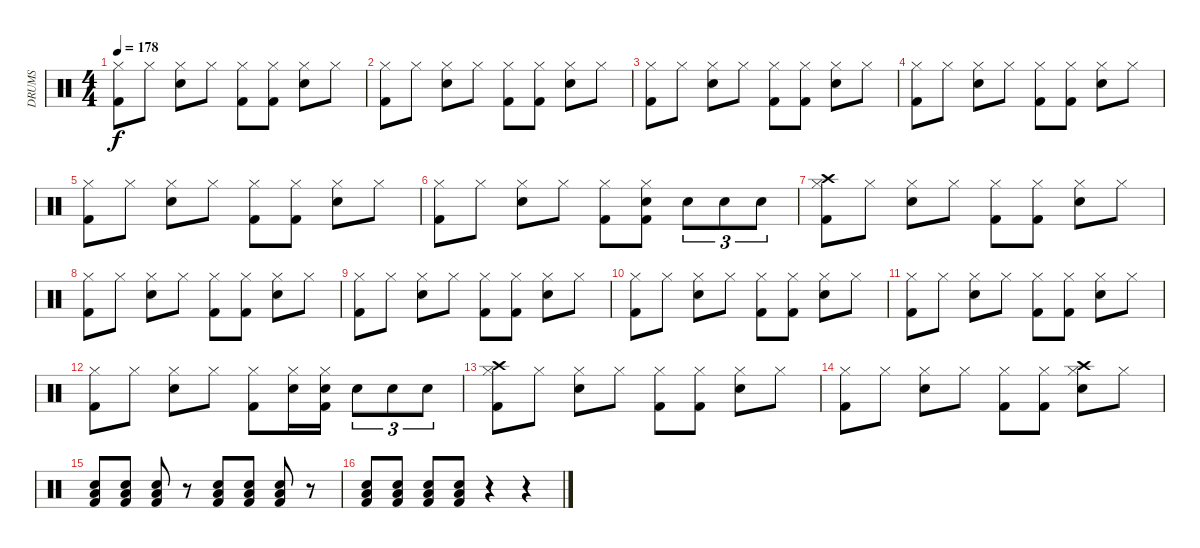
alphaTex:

\track ("DRUMS" "DRUMS") {instrument percussion}
\staff {score}
\articulation defaults
\ts (4 4)
\tempo 178
\clef neutral
\ks c
("Hi-Hat (closed)" "Kick (hit) 2").8{dy f} "Hi-Hat (closed)".8 ("Hi-Hat (closed)" "Snare (hit) 2").8 "Hi-Hat (closed)".8 ("Hi-Hat (closed)" "Kick (hit) 2").8 ("Hi-Hat (closed)" "Kick (hit) 2").8 ("Hi-Hat (closed)" "Snare (hit) 2").8 "Hi-Hat (closed)".8 |
("Hi-Hat (closed)" "Kick (hit) 2").8 "Hi-Hat (closed)".8 ("Hi-Hat (closed)" "Snare (hit) 2").8 "Hi-Hat (closed)".8 ("Hi-Hat (closed)" "Kick (hit) 2").8 ("Hi-Hat (closed)" "Kick (hit) 2").8 ("Hi-Hat (closed)" "Snare (hit) 2").8 "Hi-Hat (closed)".8 |
("Hi-Hat (closed)" "Kick (hit) 2").8 "Hi-Hat (closed)".8 ("Hi-Hat (closed)" "Snare (hit) 2").8 "Hi-Hat (closed)".8 ("Hi-Hat (closed)" "Kick (hit) 2").8 ("Hi-Hat (closed)" "Kick (hit) 2").8 ("Hi-Hat (closed)" "Snare (hit) 2").8 "Hi-Hat (closed)".8 |
("Hi-Hat (closed)" "Kick (hit) 2").8 "Hi-Hat (closed)".8 ("Hi-Hat (closed)" "Snare (hit) 2").8 "Hi-Hat (closed)".8 ("Hi-Hat (closed)" "Kick (hit) 2").8 ("Hi-Hat (closed)" "Kick (hit) 2").8 ("Hi-Hat (closed)" "Snare (hit) 2").8 "Hi-Hat (closed)".8 |
("Hi-Hat (closed)" "Kick (hit) 2").8 "Hi-Hat (closed)".8 ("Hi-Hat (closed)" "Snare (hit) 2").8 "Hi-Hat (closed)".8 ("Hi-Hat (closed)" "Kick (hit) 2").8 ("Hi-Hat (closed)" "Kick (hit) 2").8 ("Hi-Hat (closed)" "Snare (hit) 2").8 "Hi-Hat (closed)".8 |
("Hi-Hat (closed)" "Kick (hit) 2").8 "Hi-Hat (closed)".8 ("Hi-Hat (closed)" "Snare (hit) 2").8 "Hi-Hat (closed)".8 ("Hi-Hat (closed)" "Kick (hit) 2").8 ("Hi-Hat (closed)" "Snare (hit) 2" "Kick (hit) 2").8 "Snare (hit) 2".8{tu (3 2)} "Snare (hit) 2".8{tu (3 2)} "Snare (hit) 2".8{tu (3 2)} |
("Hi-Hat (closed)" "Crash high (hit)" "Kick (hit) 2").8 "Hi-Hat (closed)".8 ("Hi-Hat (closed)" "Snare (hit) 2").8 "Hi-Hat (closed)".8 ("Hi-Hat (closed)" "Kick (hit) 2").8 ("Hi-Hat (closed)" "Kick (hit) 2").8 ("Hi-Hat (closed)" "Snare (hit) 2").8 "Hi-Hat (closed)".8 |
("Hi-Hat (closed)" "Kick (hit) 2").8 "Hi-Hat (closed)".8 ("Hi-Hat (closed)" "Snare (hit) 2").8 "Hi-Hat (closed)".8 ("Hi-Hat (closed)" "Kick (hit) 2").8 ("Hi-Hat (closed)" "Kick (hit) 2").8 ("Hi-Hat (closed)" "Snare (hit) 2").8 "Hi-Hat (closed)".8 |
("Hi-Hat (closed)" "Kick (hit) 2").8 "Hi-Hat (closed)".8 ("Hi-Hat (closed)" "Snare (hit) 2").8 "Hi-Hat (closed)".8 ("Hi-Hat (closed)" "Kick (hit) 2").8 ("Hi-Hat (closed)" "Kick (hit) 2").8 ("Hi-Hat (closed)" "Snare (hit) 2").8 "Hi-Hat (closed)".8 |
("Hi-Hat (closed)" "Kick (hit) 2").8 "Hi-Hat (closed)".8 ("Hi-Hat (closed)" "Snare (hit) 2").8 "Hi-Hat (closed)".8 ("Hi-Hat (closed)" "Kick (hit) 2").8 ("Hi-Hat (closed)" "Kick (hit) 2").8 ("Hi-Hat (closed)" "Snare (hit) 2").8 "Hi-Hat (closed)".8 |
("Hi-Hat (closed)" "Kick (hit) 2").8 "Hi-Hat (closed)".8 ("Hi-Hat (closed)" "Snare (hit) 2").8 "Hi-Hat (closed)".8 ("Hi-Hat (closed)" "Kick (hit) 2").8 ("Hi-Hat (closed)" "Kick (hit) 2").8 ("Hi-Hat (closed)" "Snare (hit) 2").8 "Hi-Hat (closed)".8 |
("Hi-Hat (closed)" "Kick (hit) 2").8 "Hi-Hat (closed)".8 ("Hi-Hat (closed)" "Snare (hit) 2").8 "Hi-Hat (closed)".8 ("Hi-Hat (closed)" "Kick (hit) 2").8 ("Hi-Hat (closed)" "Snare (hit) 2").16 ("Hi-Hat (closed)" "Snare (hit) 2" "Kick (hit) 2").16 "Snare (hit) 2".8{tu (3 2)} "Snare (hit) 2".8{tu (3 2)} "Snare (hit) 2".8{tu (3 2)} |
("Hi-Hat (closed)" "Crash high (hit)" "Kick (hit) 2").8 "Hi-Hat (closed)".8 ("Hi-Hat (closed)" "Snare (hit) 2").8 "Hi-Hat (closed)".8 ("Hi-Hat (closed)" "Kick (hit) 2").8 ("Hi-Hat (closed)" "Kick (hit) 2").8 ("Hi-Hat (closed)" "Snare (hit) 2").8 "Hi-Hat (closed)".8 |
("Hi-Hat (closed)" "Kick (hit) 2").8 "Hi-Hat (closed)".8 ("Hi-Hat (closed)" "Snare (hit) 2").8 "Hi-Hat (closed)".8 ("Hi-Hat (closed)" "Kick (hit) 2").8 ("Hi-Hat (closed)" "Kick (hit) 2").8 ("Hi-Hat (closed)" "Crash high (hit)" "Snare (hit) 2").8 "Hi-Hat (closed)".8 |
("Low Floor Tom (hit)" "Snare (hit) 2" "Kick (hit) 2").8 ("Low Floor Tom (hit)" "Snare (hit) 2" "Kick (hit) 2").8 ("Low Floor Tom (hit)" "Snare (hit) 2" "Kick (hit) 2").8 r.8 ("Low Floor Tom (hit)" "Snare (hit) 2" "Kick (hit) 2").8 ("Low Floor Tom (hit)" "Snare (hit) 2" "Kick (hit) 2").8 ("Low Floor Tom (hit)" "Snare (hit) 2" "Kick (hit) 2").8 r.8 |
("Low Floor Tom (hit)" "Snare (hit) 2" "Kick (hit) 2").8 ("Low Floor Tom (hit)" "Snare (hit) 2" "Kick (hit) 2").8 ("Low Floor Tom (hit)" "Snare (hit) 2" "Kick (hit) 2").8 ("Low Floor Tom (hit)" "Snare (hit) 2" "Kick (hit) 2").8 r.4 r.4
